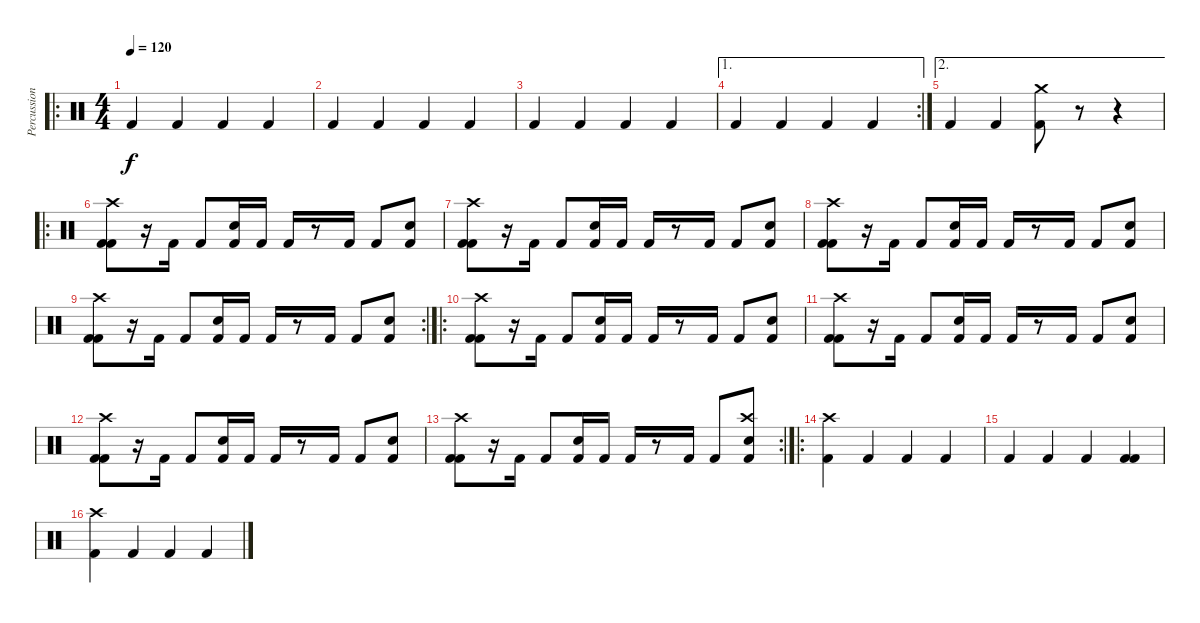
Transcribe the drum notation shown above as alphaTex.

\track ("Percussion" "Percussion") {instrument percussion}
\staff {score}
\articulation defaults
\ro
\ts (4 4)
\tempo 120
\clef neutral
\ks c "Kick (hit) 2".4{dy f} "Kick (hit) 2".4 "Kick (hit) 2".4 "Kick (hit) 2".4
|
"Kick (hit) 2".4 "Kick (hit) 2".4 "Kick (hit) 2".4 "Kick (hit) 2".4 |
"Kick (hit) 2".4 "Kick (hit) 2".4 "Kick (hit) 2".4 "Kick (hit) 2".4 |
\ae 1
\rc 2 "Kick (hit) 2".4 "Kick (hit) 2".4 "Kick (hit) 2".4 "Kick (hit) 2".4
|
\ae 2 "Kick (hit) 2".4 "Kick (hit) 2".4
("Crash medium (hit)" "Kick (hit) 2").8 r.8 r.4 |
\ro
("Crash high (hit)" "Kick (hit) 2" "Kick (hit) 2").8 r.16 "Kick (hit) 2".16 "Kick (hit) 2".8 ("Snare (hit) 2" "Kick (hit) 2").16 "Kick (hit) 2".16 "Kick (hit) 2".16 r.8 "Kick (hit) 2".16 "Kick (hit) 2".8 ("Snare (hit) 2" "Kick (hit) 2").8 |
("Crash high (hit)" "Kick (hit) 2" "Kick (hit) 2").8 r.16 "Kick (hit) 2".16 "Kick (hit) 2".8 ("Snare (hit) 2" "Kick (hit) 2").16 "Kick (hit) 2".16 "Kick (hit) 2".16 r.8 "Kick (hit) 2".16 "Kick (hit) 2".8 ("Snare (hit) 2" "Kick (hit) 2").8 |
("Crash high (hit)" "Kick (hit) 2" "Kick (hit) 2").8 r.16 "Kick (hit) 2".16 "Kick (hit) 2".8 ("Snare (hit) 2" "Kick (hit) 2").16 "Kick (hit) 2".16 "Kick (hit) 2".16 r.8 "Kick (hit) 2".16 "Kick (hit) 2".8 ("Snare (hit) 2" "Kick (hit) 2").8 |
\rc 2
("Crash high (hit)" "Kick (hit) 2" "Kick (hit) 2").8 r.16 "Kick (hit) 2".16 "Kick (hit) 2".8 ("Snare (hit) 2" "Kick (hit) 2").16 "Kick (hit) 2".16 "Kick (hit) 2".16 r.8 "Kick (hit) 2".16 "Kick (hit) 2".8 ("Snare (hit) 2" "Kick (hit) 2").8 |
\ro
("Crash high (hit)" "Kick (hit) 2" "Kick (hit) 2").8 r.16 "Kick (hit) 2".16 "Kick (hit) 2".8 ("Snare (hit) 2" "Kick (hit) 2").16 "Kick (hit) 2".16 "Kick (hit) 2".16 r.8 "Kick (hit) 2".16 "Kick (hit) 2".8 ("Snare (hit) 2" "Kick (hit) 2").8 |
("Crash high (hit)" "Kick (hit) 2" "Kick (hit) 2").8 r.16 "Kick (hit) 2".16 "Kick (hit) 2".8 ("Snare (hit) 2" "Kick (hit) 2").16 "Kick (hit) 2".16 "Kick (hit) 2".16 r.8 "Kick (hit) 2".16 "Kick (hit) 2".8 ("Snare (hit) 2" "Kick (hit) 2").8 |
("Crash high (hit)" "Kick (hit) 2" "Kick (hit) 2").8 r.16 "Kick (hit) 2".16 "Kick (hit) 2".8 ("Snare (hit) 2" "Kick (hit) 2").16 "Kick (hit) 2".16 "Kick (hit) 2".16 r.8 "Kick (hit) 2".16 "Kick (hit) 2".8 ("Snare (hit) 2" "Kick (hit) 2").8 |
\rc 2
("Crash high (hit)" "Kick (hit) 2" "Kick (hit) 2").8 r.16 "Kick (hit) 2".16 "Kick (hit) 2".8 ("Snare (hit) 2" "Kick (hit) 2").16 "Kick (hit) 2".16 "Kick (hit) 2".16 r.8 "Kick (hit) 2".16 "Kick (hit) 2".8 ("Crash high (hit)" "Snare (hit) 2" "Kick (hit) 2").8 |
\ro
("Crash high (hit)" "Kick (hit) 2").4 "Kick (hit) 2".4 "Kick (hit) 2".4 "Kick (hit) 2".4 |
"Kick (hit) 2".4 "Kick (hit) 2".4 "Kick (hit) 2".4 ("Kick (hit) 2" "Kick (hit) 2").4 |
("Crash high (hit)" "Kick (hit) 2").4 "Kick (hit) 2".4 "Kick (hit) 2".4 "Kick (hit) 2".4
